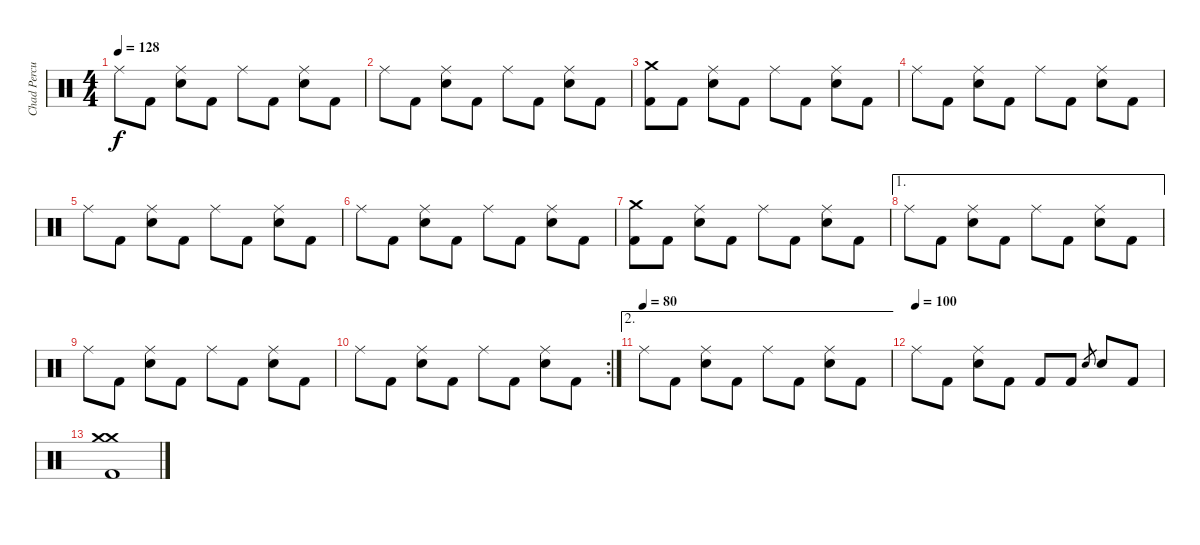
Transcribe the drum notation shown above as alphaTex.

\track ("Chad Percuson (11)" "Chad Percu") {instrument percussion}
\staff {score}
\articulation defaults
\ts (4 4)
\tempo 128
\clef neutral
\ks c "Ride (middle)".8{dy f} "Kick (hit) 2".8
("Ride (middle)" "Electric Snare (hit)").8 "Kick (hit) 2".8 "Ride (middle)".8 "Kick (hit) 2".8 ("Ride (middle)" "Electric Snare (hit)").8 "Kick (hit) 2".8 |
"Ride (middle)".8 "Kick (hit) 2".8 ("Ride (middle)" "Electric Snare (hit)").8 "Kick (hit) 2".8 "Ride (middle)".8 "Kick (hit) 2".8 ("Ride (middle)" "Electric Snare (hit)").8 "Kick (hit) 2".8 |
("Crash medium (hit)" "Kick (hit) 2").8 "Kick (hit) 2".8 ("Ride (middle)" "Electric Snare (hit)").8 "Kick (hit) 2".8 "Ride (middle)".8 "Kick (hit) 2".8 ("Ride (middle)" "Electric Snare (hit)").8 "Kick (hit) 2".8 |
"Ride (middle)".8 "Kick (hit) 2".8 ("Ride (middle)" "Electric Snare (hit)").8 "Kick (hit) 2".8 "Ride (middle)".8 "Kick (hit) 2".8 ("Ride (middle)" "Electric Snare (hit)").8 "Kick (hit) 2".8 |
"Ride (middle)".8 "Kick (hit) 2".8 ("Ride (middle)" "Electric Snare (hit)").8 "Kick (hit) 2".8 "Ride (middle)".8 "Kick (hit) 2".8 ("Ride (middle)" "Electric Snare (hit)").8 "Kick (hit) 2".8 |
"Ride (middle)".8 "Kick (hit) 2".8 ("Ride (middle)" "Electric Snare (hit)").8 "Kick (hit) 2".8 "Ride (middle)".8 "Kick (hit) 2".8 ("Ride (middle)" "Electric Snare (hit)").8 "Kick (hit) 2".8 |
("Crash medium (hit)" "Kick (hit) 2").8 "Kick (hit) 2".8 ("Ride (middle)" "Electric Snare (hit)").8 "Kick (hit) 2".8 "Ride (middle)".8 "Kick (hit) 2".8 ("Ride (middle)" "Electric Snare (hit)").8 "Kick (hit) 2".8 |
\ae 1 "Ride (middle)".8 "Kick (hit) 2".8
("Ride (middle)" "Electric Snare (hit)").8 "Kick (hit) 2".8 "Ride (middle)".8 "Kick (hit) 2".8 ("Ride (middle)" "Electric Snare (hit)").8 "Kick (hit) 2".8 |
"Ride (middle)".8 "Kick (hit) 2".8 ("Ride (middle)" "Electric Snare (hit)").8 "Kick (hit) 2".8 "Ride (middle)".8 "Kick (hit) 2".8 ("Ride (middle)" "Electric Snare (hit)").8 "Kick (hit) 2".8 |
\rc 2 "Ride (middle)".8 "Kick (hit) 2".8
("Ride (middle)" "Electric Snare (hit)").8 "Kick (hit) 2".8 "Ride (middle)".8 "Kick (hit) 2".8 ("Ride (middle)" "Electric Snare (hit)").8 "Kick (hit) 2".8 |
\ae 2
\tempo (80)
"Ride (middle)".8 "Kick (hit) 2".8 ("Ride (middle)" "Electric Snare (hit)").8 "Kick (hit) 2".8 "Ride (middle)".8 "Kick (hit) 2".8 ("Ride (middle)" "Electric Snare (hit)").8 "Kick (hit) 2".8 |
\tempo (100)
"Ride (middle)".8 "Kick (hit) 2".8 ("Ride (middle)" "Electric Snare (hit)").8 "Kick (hit) 2".8 "Kick (hit) 2".8 "Kick (hit) 2".8 "Electric Snare (hit)".8{gr} "Electric Snare (hit)".8 "Kick (hit) 2".8 |
("Crash medium (hit)" "Crash medium (hit)" "Kick (hit) 2").1
